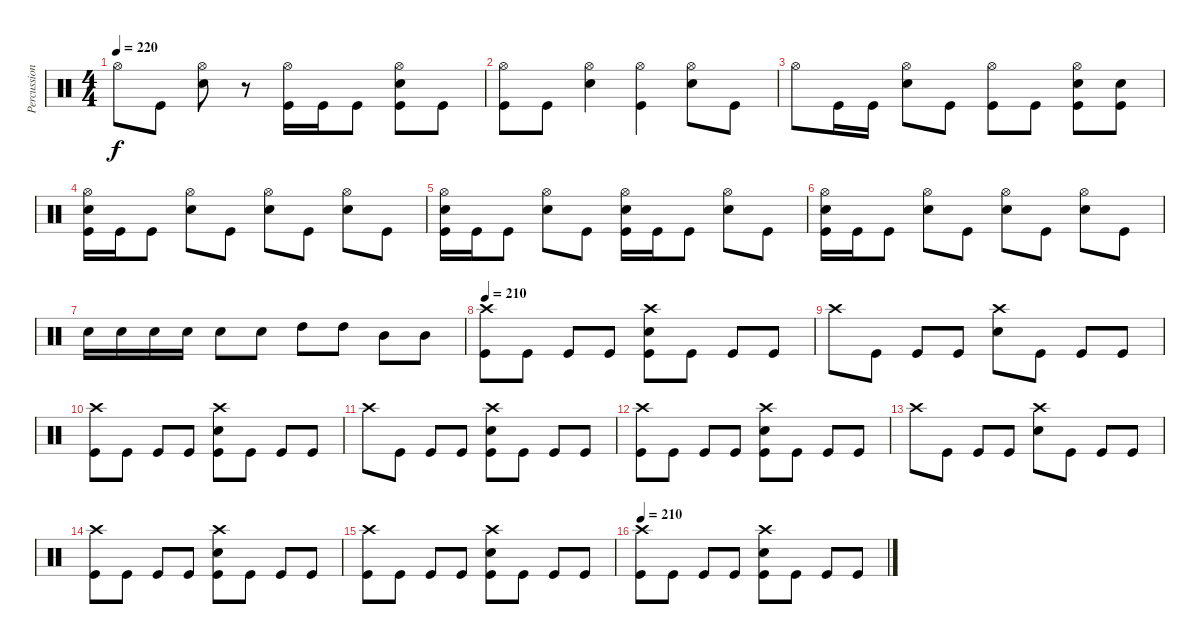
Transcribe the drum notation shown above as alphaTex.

\track ("Percussion" "Percussion") {instrument percussion}
\staff {score}
\articulation defaults
\ts (4 4)
\tempo 220
\clef neutral
\ks c "Hi-Hat (open)".8{dy f} "Kick (hit)".8
("Hi-Hat (open)" "Snare (hit) 2").8 r.8 ("Hi-Hat (open)" "Kick (hit)").16 "Kick (hit)".16 "Kick (hit)".8 ("Hi-Hat (open)" "Snare (hit) 2" "Kick (hit)").8 "Kick (hit)".8 |
("Hi-Hat (open)" "Kick (hit)").8 "Kick (hit)".8 ("Hi-Hat (open)" "Snare (hit) 2").4 ("Hi-Hat (open)" "Kick (hit)").4 ("Hi-Hat (open)" "Snare (hit) 2").8 "Kick (hit)".8 |
"Hi-Hat (open)".8 "Kick (hit)".16 "Kick (hit)".16 ("Hi-Hat (open)" "Snare (hit) 2").8 "Kick (hit)".8 ("Hi-Hat (open)" "Kick (hit)").8 "Kick (hit)".8 ("Hi-Hat (open)" "Snare (hit) 2" "Kick (hit)").8 ("Snare (hit) 2" "Kick (hit)").8 |
("Hi-Hat (open)" "Snare (hit) 2" "Kick (hit)").16 "Kick (hit)".16 "Kick (hit)".8 ("Hi-Hat (open)" "Snare (hit) 2").8 "Kick (hit)".8 ("Hi-Hat (open)" "Snare (hit) 2").8 "Kick (hit)".8 ("Hi-Hat (open)" "Snare (hit) 2").8 "Kick (hit)".8 |
("Hi-Hat (open)" "Snare (hit) 2" "Kick (hit)").16 "Kick (hit)".16 "Kick (hit)".8 ("Hi-Hat (open)" "Snare (hit) 2").8 "Kick (hit)".8 ("Hi-Hat (open)" "Snare (hit) 2" "Kick (hit)").16 "Kick (hit)".16 "Kick (hit)".8 ("Hi-Hat (open)" "Snare (hit) 2").8 "Kick (hit)".8 |
("Hi-Hat (open)" "Snare (hit) 2" "Kick (hit)").16 "Kick (hit)".16 "Kick (hit)".8 ("Hi-Hat (open)" "Snare (hit) 2").8 "Kick (hit)".8 ("Hi-Hat (open)" "Snare (hit) 2").8 "Kick (hit)".8 ("Hi-Hat (open)" "Snare (hit) 2").8 "Kick (hit)".8 |
"Snare (hit) 2".16 "Snare (hit) 2".16 "Snare (hit) 2".16 "Snare (hit) 2".16 "Snare (hit) 2".8 "Snare (hit) 2".8 "High Tom (hit)".8 "High Tom (hit)".8 "Mid Tom (hit)".8 "Mid Tom (hit)".8 |
\tempo 210
("Crash high (hit)" "Kick (hit)").8 "Kick (hit)".8 "Kick (hit)".8 "Kick (hit)".8 ("Crash high (hit)" "Snare (hit) 2" "Kick (hit)").8 "Kick (hit)".8 "Kick (hit)".8 "Kick (hit)".8 |
"Crash high (hit)".8 "Kick (hit)".8 "Kick (hit)".8 "Kick (hit)".8 ("Crash high (hit)" "Snare (hit) 2").8 "Kick (hit)".8 "Kick (hit)".8 "Kick (hit)".8 |
("Crash high (hit)" "Kick (hit)").8 "Kick (hit)".8 "Kick (hit)".8 "Kick (hit)".8 ("Crash high (hit)" "Snare (hit) 2" "Kick (hit)").8 "Kick (hit)".8 "Kick (hit)".8 "Kick (hit)".8 |
"Crash high (hit)".8 "Kick (hit)".8 "Kick (hit)".8 "Kick (hit)".8 ("Crash high (hit)" "Snare (hit) 2" "Kick (hit)").8 "Kick (hit)".8 "Kick (hit)".8 "Kick (hit)".8 |
("Crash high (hit)" "Kick (hit)").8 "Kick (hit)".8 "Kick (hit)".8 "Kick (hit)".8 ("Crash high (hit)" "Snare (hit) 2" "Kick (hit)").8 "Kick (hit)".8 "Kick (hit)".8 "Kick (hit)".8 |
"Crash high (hit)".8 "Kick (hit)".8 "Kick (hit)".8 "Kick (hit)".8 ("Crash high (hit)" "Snare (hit) 2").8 "Kick (hit)".8 "Kick (hit)".8 "Kick (hit)".8 |
("Crash high (hit)" "Kick (hit)").8 "Kick (hit)".8 "Kick (hit)".8 "Kick (hit)".8 ("Crash high (hit)" "Snare (hit) 2" "Kick (hit)").8 "Kick (hit)".8 "Kick (hit)".8 "Kick (hit)".8 |
("Crash high (hit)" "Kick (hit)").8 "Kick (hit)".8 "Kick (hit)".8 "Kick (hit)".8 ("Crash high (hit)" "Snare (hit) 2" "Kick (hit)").8 "Kick (hit)".8 "Kick (hit)".8 "Kick (hit)".8 |
\tempo 210
("Crash high (hit)" "Kick (hit)").8 "Kick (hit)".8 "Kick (hit)".8 "Kick (hit)".8 ("Crash high (hit)" "Snare (hit) 2" "Kick (hit)").8 "Kick (hit)".8 "Kick (hit)".8 "Kick (hit)".8
